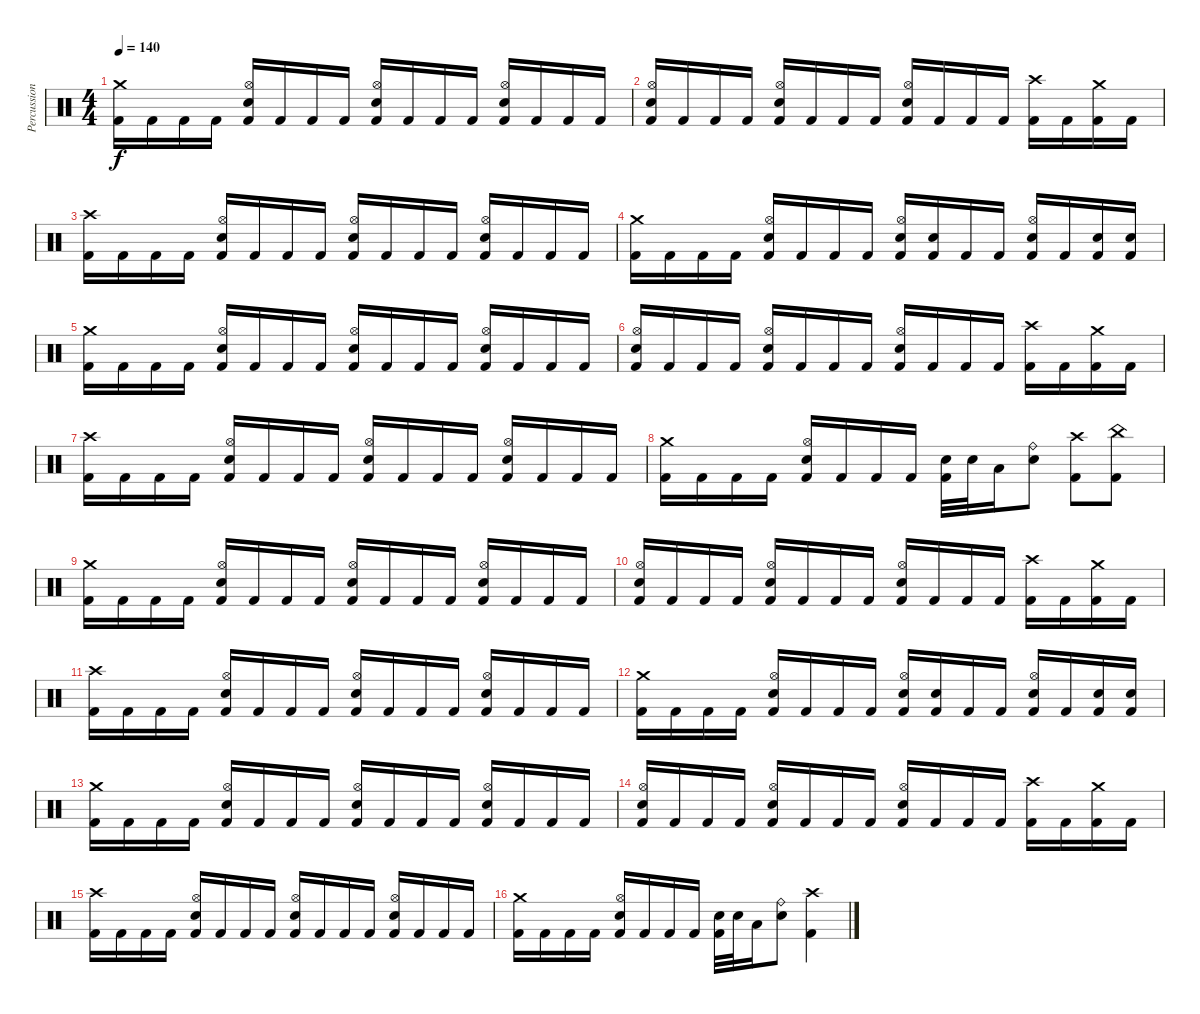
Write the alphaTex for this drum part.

\track ("Percussion" "Percussion") {instrument percussion}
\staff {score}
\articulation defaults
\ts (4 4)
\tempo 140
\clef neutral
\ks c
("Crash medium (hit)" "Kick (hit) 2").16{dy f} "Kick (hit) 2".16 "Kick (hit) 2".16 "Kick (hit) 2".16 ("Hi-Hat (open)" "Electric Snare (hit)" "Kick (hit) 2").16 "Kick (hit) 2".16 "Kick (hit) 2".16 "Kick (hit) 2".16 ("Hi-Hat (open)" "Electric Snare (hit)" "Kick (hit) 2").16 "Kick (hit) 2".16 "Kick (hit) 2".16 "Kick (hit) 2".16 ("Hi-Hat (open)" "Electric Snare (hit)" "Kick (hit) 2").16 "Kick (hit) 2".16 "Kick (hit) 2".16 "Kick (hit) 2".16 |
("Hi-Hat (open)" "Electric Snare (hit)" "Kick (hit) 2").16 "Kick (hit) 2".16 "Kick (hit) 2".16 "Kick (hit) 2".16 ("Hi-Hat (open)" "Electric Snare (hit)" "Kick (hit) 2").16 "Kick (hit) 2".16 "Kick (hit) 2".16 "Kick (hit) 2".16 ("Hi-Hat (open)" "Electric Snare (hit)" "Kick (hit) 2").16 "Kick (hit) 2".16 "Kick (hit) 2".16 "Kick (hit) 2".16 ("Crash high (hit)" "Kick (hit) 2").16 "Kick (hit) 2".16 ("Crash medium (hit)" "Kick (hit) 2").16 "Kick (hit) 2".16 |
("Crash high (hit)" "Kick (hit) 2").16 "Kick (hit) 2".16 "Kick (hit) 2".16 "Kick (hit) 2".16 ("Hi-Hat (open)" "Electric Snare (hit)" "Kick (hit) 2").16 "Kick (hit) 2".16 "Kick (hit) 2".16 "Kick (hit) 2".16 ("Hi-Hat (open)" "Electric Snare (hit)" "Kick (hit) 2").16 "Kick (hit) 2".16 "Kick (hit) 2".16 "Kick (hit) 2".16 ("Hi-Hat (open)" "Electric Snare (hit)" "Kick (hit) 2").16 "Kick (hit) 2".16 "Kick (hit) 2".16 "Kick (hit) 2".16 |
("Crash medium (hit)" "Kick (hit) 2").16 "Kick (hit) 2".16 "Kick (hit) 2".16 "Kick (hit) 2".16 ("Hi-Hat (open)" "Electric Snare (hit)" "Kick (hit) 2").16 "Kick (hit) 2".16 "Kick (hit) 2".16 "Kick (hit) 2".16 ("Hi-Hat (open)" "Electric Snare (hit)" "Kick (hit) 2").16 ("Electric Snare (hit)" "Kick (hit) 2").16 "Kick (hit) 2".16 "Kick (hit) 2".16 ("Hi-Hat (open)" "Electric Snare (hit)" "Kick (hit) 2").16 "Kick (hit) 2".16 ("Electric Snare (hit)" "Kick (hit) 2").16 ("Electric Snare (hit)" "Kick (hit) 2").16 |
("Crash medium (hit)" "Kick (hit) 2").16 "Kick (hit) 2".16 "Kick (hit) 2".16 "Kick (hit) 2".16 ("Hi-Hat (open)" "Electric Snare (hit)" "Kick (hit) 2").16 "Kick (hit) 2".16 "Kick (hit) 2".16 "Kick (hit) 2".16 ("Hi-Hat (open)" "Electric Snare (hit)" "Kick (hit) 2").16 "Kick (hit) 2".16 "Kick (hit) 2".16 "Kick (hit) 2".16 ("Hi-Hat (open)" "Electric Snare (hit)" "Kick (hit) 2").16 "Kick (hit) 2".16 "Kick (hit) 2".16 "Kick (hit) 2".16 |
("Hi-Hat (open)" "Electric Snare (hit)" "Kick (hit) 2").16 "Kick (hit) 2".16 "Kick (hit) 2".16 "Kick (hit) 2".16 ("Hi-Hat (open)" "Electric Snare (hit)" "Kick (hit) 2").16 "Kick (hit) 2".16 "Kick (hit) 2".16 "Kick (hit) 2".16 ("Hi-Hat (open)" "Electric Snare (hit)" "Kick (hit) 2").16 "Kick (hit) 2".16 "Kick (hit) 2".16 "Kick (hit) 2".16 ("Crash high (hit)" "Kick (hit) 2").16 "Kick (hit) 2".16 ("Crash medium (hit)" "Kick (hit) 2").16 "Kick (hit) 2".16 |
("Crash high (hit)" "Kick (hit) 2").16 "Kick (hit) 2".16 "Kick (hit) 2".16 "Kick (hit) 2".16 ("Hi-Hat (open)" "Electric Snare (hit)" "Kick (hit) 2").16 "Kick (hit) 2".16 "Kick (hit) 2".16 "Kick (hit) 2".16 ("Hi-Hat (open)" "Electric Snare (hit)" "Kick (hit) 2").16 "Kick (hit) 2".16 "Kick (hit) 2".16 "Kick (hit) 2".16 ("Hi-Hat (open)" "Electric Snare (hit)" "Kick (hit) 2").16 "Kick (hit) 2".16 "Kick (hit) 2".16 "Kick (hit) 2".16 |
("Crash medium (hit)" "Kick (hit) 2").16 "Kick (hit) 2".16 "Kick (hit) 2".16 "Kick (hit) 2".16 ("Hi-Hat (open)" "Electric Snare (hit)" "Kick (hit) 2").16 "Kick (hit) 2".16 "Kick (hit) 2".16 "Kick (hit) 2".16 ("Electric Snare (hit)" "Kick (hit) 2").32 "Electric Snare (hit)".32 "Low Tom (hit)".16 ("Ride (bell)" "Electric Snare (hit)").8 ("Crash high (hit)" "Kick (hit) 2").8 ("China (hit)" "Kick (hit) 2").8 |
("Crash medium (hit)" "Kick (hit) 2").16 "Kick (hit) 2".16 "Kick (hit) 2".16 "Kick (hit) 2".16 ("Hi-Hat (open)" "Electric Snare (hit)" "Kick (hit) 2").16 "Kick (hit) 2".16 "Kick (hit) 2".16 "Kick (hit) 2".16 ("Hi-Hat (open)" "Electric Snare (hit)" "Kick (hit) 2").16 "Kick (hit) 2".16 "Kick (hit) 2".16 "Kick (hit) 2".16 ("Hi-Hat (open)" "Electric Snare (hit)" "Kick (hit) 2").16 "Kick (hit) 2".16 "Kick (hit) 2".16 "Kick (hit) 2".16 |
("Hi-Hat (open)" "Electric Snare (hit)" "Kick (hit) 2").16 "Kick (hit) 2".16 "Kick (hit) 2".16 "Kick (hit) 2".16 ("Hi-Hat (open)" "Electric Snare (hit)" "Kick (hit) 2").16 "Kick (hit) 2".16 "Kick (hit) 2".16 "Kick (hit) 2".16 ("Hi-Hat (open)" "Electric Snare (hit)" "Kick (hit) 2").16 "Kick (hit) 2".16 "Kick (hit) 2".16 "Kick (hit) 2".16 ("Crash high (hit)" "Kick (hit) 2").16 "Kick (hit) 2".16 ("Crash medium (hit)" "Kick (hit) 2").16 "Kick (hit) 2".16 |
("Crash high (hit)" "Kick (hit) 2").16 "Kick (hit) 2".16 "Kick (hit) 2".16 "Kick (hit) 2".16 ("Hi-Hat (open)" "Electric Snare (hit)" "Kick (hit) 2").16 "Kick (hit) 2".16 "Kick (hit) 2".16 "Kick (hit) 2".16 ("Hi-Hat (open)" "Electric Snare (hit)" "Kick (hit) 2").16 "Kick (hit) 2".16 "Kick (hit) 2".16 "Kick (hit) 2".16 ("Hi-Hat (open)" "Electric Snare (hit)" "Kick (hit) 2").16 "Kick (hit) 2".16 "Kick (hit) 2".16 "Kick (hit) 2".16 |
("Crash medium (hit)" "Kick (hit) 2").16 "Kick (hit) 2".16 "Kick (hit) 2".16 "Kick (hit) 2".16 ("Hi-Hat (open)" "Electric Snare (hit)" "Kick (hit) 2").16 "Kick (hit) 2".16 "Kick (hit) 2".16 "Kick (hit) 2".16 ("Hi-Hat (open)" "Electric Snare (hit)" "Kick (hit) 2").16 ("Electric Snare (hit)" "Kick (hit) 2").16 "Kick (hit) 2".16 "Kick (hit) 2".16 ("Hi-Hat (open)" "Electric Snare (hit)" "Kick (hit) 2").16 "Kick (hit) 2".16 ("Electric Snare (hit)" "Kick (hit) 2").16 ("Electric Snare (hit)" "Kick (hit) 2").16 |
("Crash medium (hit)" "Kick (hit) 2").16 "Kick (hit) 2".16 "Kick (hit) 2".16 "Kick (hit) 2".16 ("Hi-Hat (open)" "Electric Snare (hit)" "Kick (hit) 2").16 "Kick (hit) 2".16 "Kick (hit) 2".16 "Kick (hit) 2".16 ("Hi-Hat (open)" "Electric Snare (hit)" "Kick (hit) 2").16 "Kick (hit) 2".16 "Kick (hit) 2".16 "Kick (hit) 2".16 ("Hi-Hat (open)" "Electric Snare (hit)" "Kick (hit) 2").16 "Kick (hit) 2".16 "Kick (hit) 2".16 "Kick (hit) 2".16 |
("Hi-Hat (open)" "Electric Snare (hit)" "Kick (hit) 2").16 "Kick (hit) 2".16 "Kick (hit) 2".16 "Kick (hit) 2".16 ("Hi-Hat (open)" "Electric Snare (hit)" "Kick (hit) 2").16 "Kick (hit) 2".16 "Kick (hit) 2".16 "Kick (hit) 2".16 ("Hi-Hat (open)" "Electric Snare (hit)" "Kick (hit) 2").16 "Kick (hit) 2".16 "Kick (hit) 2".16 "Kick (hit) 2".16 ("Crash high (hit)" "Kick (hit) 2").16 "Kick (hit) 2".16 ("Crash medium (hit)" "Kick (hit) 2").16 "Kick (hit) 2".16 |
("Crash high (hit)" "Kick (hit) 2").16 "Kick (hit) 2".16 "Kick (hit) 2".16 "Kick (hit) 2".16 ("Hi-Hat (open)" "Electric Snare (hit)" "Kick (hit) 2").16 "Kick (hit) 2".16 "Kick (hit) 2".16 "Kick (hit) 2".16 ("Hi-Hat (open)" "Electric Snare (hit)" "Kick (hit) 2").16 "Kick (hit) 2".16 "Kick (hit) 2".16 "Kick (hit) 2".16 ("Hi-Hat (open)" "Electric Snare (hit)" "Kick (hit) 2").16 "Kick (hit) 2".16 "Kick (hit) 2".16 "Kick (hit) 2".16 |
("Crash medium (hit)" "Kick (hit) 2").16 "Kick (hit) 2".16 "Kick (hit) 2".16 "Kick (hit) 2".16 ("Hi-Hat (open)" "Electric Snare (hit)" "Kick (hit) 2").16 "Kick (hit) 2".16 "Kick (hit) 2".16 "Kick (hit) 2".16 ("Electric Snare (hit)" "Kick (hit) 2").32 "Electric Snare (hit)".32 "Low Tom (hit)".16 ("Ride (bell)" "Electric Snare (hit)").8 ("Crash high (hit)" "Kick (hit) 2").4
